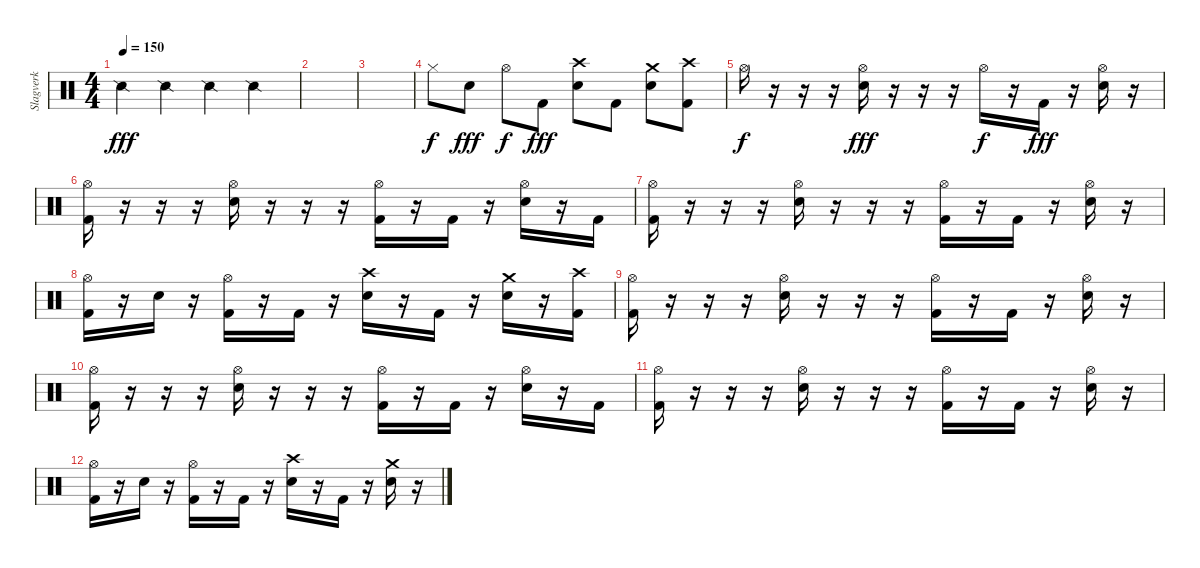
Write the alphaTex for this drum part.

\track ("Slagverk" "Slagverk") {instrument percussion}
\staff {score}
\articulation defaults
\ts (4 4)
\tempo 150
\clef neutral
\ks c "Snare (side stick) 2".4{dy fff} "Snare (side stick) 2".4 "Snare (side stick) 2".4 "Snare (side stick) 2".4
|
|
|
"Hi-Hat (closed)".8{dy f} "Electric Snare (hit)".8{dy fff} "Hi-Hat (open)".8{dy f} "Kick (hit) 2".8{dy fff} ("Crash high (hit)" "Electric Snare (hit)").8 "Kick (hit) 2".8 ("Crash medium (hit)" "Electric Snare (hit)").8 ("Crash high (hit)" "Kick (hit) 2").8 |
"Hi-Hat (open)".16{dy f} r.16 r.16 r.16 ("Hi-Hat (open)" "Electric Snare (hit)").16{dy fff} r.16 r.16 r.16 "Hi-Hat (open)".16{dy f} r.16 "Kick (hit) 2".16{dy fff} r.16 ("Hi-Hat (open)" "Electric Snare (hit)").16 r.16 |
("Hi-Hat (open)" "Kick (hit) 2").16 r.16 r.16 r.16 ("Hi-Hat (open)" "Electric Snare (hit)").16 r.16 r.16 r.16 ("Hi-Hat (open)" "Kick (hit) 2").16 r.16 "Kick (hit) 2".16 r.16 ("Hi-Hat (open)" "Electric Snare (hit)").16 r.16 "Kick (hit) 2".16 |
("Hi-Hat (open)" "Kick (hit) 2").16 r.16 r.16 r.16 ("Hi-Hat (open)" "Electric Snare (hit)").16 r.16 r.16 r.16 ("Hi-Hat (open)" "Kick (hit) 2").16 r.16 "Kick (hit) 2".16 r.16 ("Hi-Hat (open)" "Electric Snare (hit)").16 r.16 |
("Hi-Hat (open)" "Kick (hit) 2").16 r.16 "Electric Snare (hit)".16 r.16 ("Hi-Hat (open)" "Kick (hit) 2").16 r.16 "Kick (hit) 2".16 r.16 ("Crash high (hit)" "Electric Snare (hit)").16 r.16 "Kick (hit) 2".16 r.16 ("Crash medium (hit)" "Electric Snare (hit)").16 r.16 ("Crash high (hit)" "Kick (hit) 2").16 |
("Hi-Hat (open)" "Kick (hit) 2").16 r.16 r.16 r.16 ("Hi-Hat (open)" "Electric Snare (hit)").16 r.16 r.16 r.16 ("Hi-Hat (open)" "Kick (hit) 2").16 r.16 "Kick (hit) 2".16 r.16 ("Hi-Hat (open)" "Electric Snare (hit)").16 r.16 |
("Hi-Hat (open)" "Kick (hit) 2").16 r.16 r.16 r.16 ("Hi-Hat (open)" "Electric Snare (hit)").16 r.16 r.16 r.16 ("Hi-Hat (open)" "Kick (hit) 2").16 r.16 "Kick (hit) 2".16 r.16 ("Hi-Hat (open)" "Electric Snare (hit)").16 r.16 "Kick (hit) 2".16 |
("Hi-Hat (open)" "Kick (hit) 2").16 r.16 r.16 r.16 ("Hi-Hat (open)" "Electric Snare (hit)").16 r.16 r.16 r.16 ("Hi-Hat (open)" "Kick (hit) 2").16 r.16 "Kick (hit) 2".16 r.16 ("Hi-Hat (open)" "Electric Snare (hit)").16 r.16 |
("Hi-Hat (open)" "Kick (hit) 2").16 r.16 "Electric Snare (hit)".16 r.16 ("Hi-Hat (open)" "Kick (hit) 2").16 r.16 "Kick (hit) 2".16 r.16 ("Crash high (hit)" "Electric Snare (hit)").16 r.16 "Kick (hit) 2".16 r.16 ("Crash medium (hit)" "Electric Snare (hit)").16 r.16
